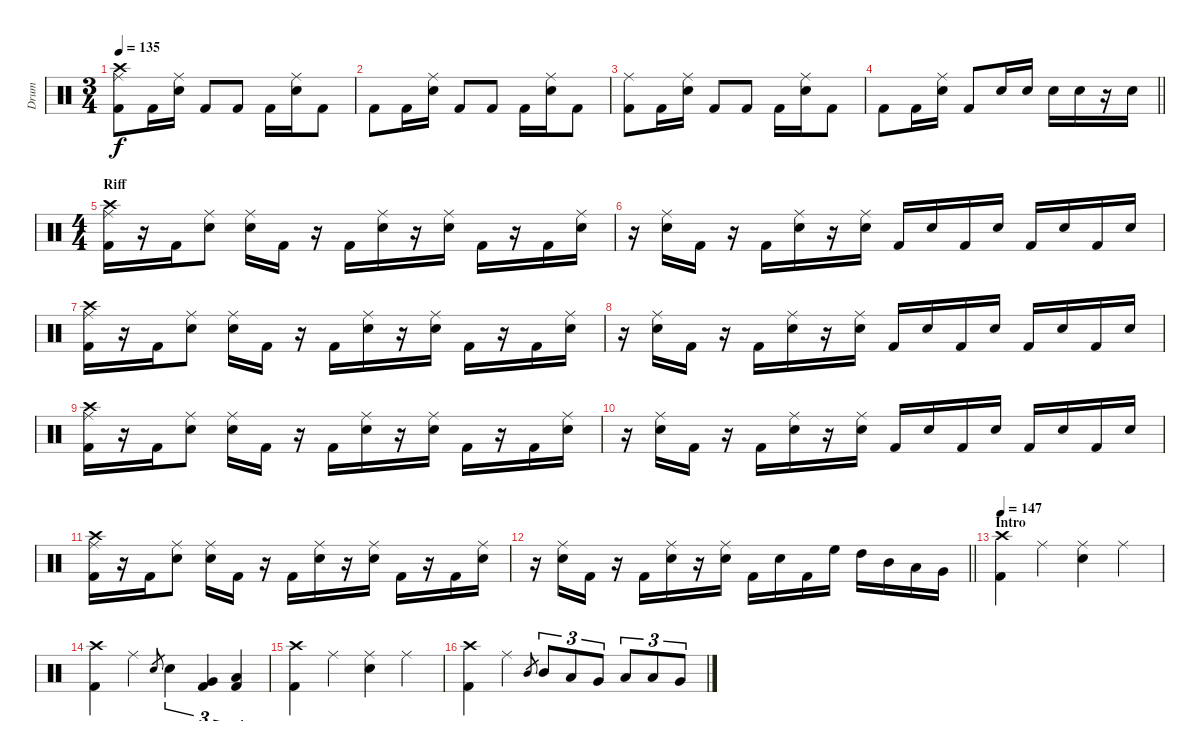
\track ("Drum" "Drum") {instrument percussion}
\staff {score}
\articulation defaults
\ts (3 4)
\tempo 135
\clef neutral
\ks c
("Crash high (hit)" "Ride (middle)" "Kick (hit) 2").8{dy f} "Kick (hit) 2".16 ("Ride (middle)" "Electric Snare (hit)").16 "Kick (hit) 2".8 "Kick (hit) 2".8 "Kick (hit) 2".16 ("Ride (middle)" "Electric Snare (hit)").16 "Kick (hit) 2".8 |
"Kick (hit) 2".8 "Kick (hit) 2".16 ("Ride (middle)" "Electric Snare (hit)").16 "Kick (hit) 2".8 "Kick (hit) 2".8 "Kick (hit) 2".16 ("Ride (middle)" "Electric Snare (hit)").16 "Kick (hit) 2".8 |
("Ride (middle)" "Kick (hit) 2").8 "Kick (hit) 2".16 ("Ride (middle)" "Electric Snare (hit)").16 "Kick (hit) 2".8 "Kick (hit) 2".8 "Kick (hit) 2".16 ("Ride (middle)" "Electric Snare (hit)").16 "Kick (hit) 2".8 |
\barLineRight lightlight "Kick (hit) 2".8 "Kick (hit) 2".16
("Ride (middle)" "Electric Snare (hit)").16 "Kick (hit) 2".8 "Electric Snare (hit)".16 "Electric Snare (hit)".16 "Electric Snare (hit)".16 "Electric Snare (hit)".16 r.16 "Electric Snare (hit)".16 |
\ts (4 4)
\section ("" "Riff")
("Crash high (hit)" "Ride (middle)" "Kick (hit) 2").16 r.16 "Kick (hit) 2".16 ("Ride (middle)" "Electric Snare (hit)").8 ("Ride (middle)" "Electric Snare (hit)").16 "Kick (hit) 2".16 r.16 "Kick (hit) 2".16 ("Ride (middle)" "Electric Snare (hit)").16 r.16 ("Ride (middle)" "Electric Snare (hit)").16 "Kick (hit) 2".16 r.16 "Kick (hit) 2".16 ("Ride (middle)" "Electric Snare (hit)").16 |
r.16 ("Ride (middle)" "Electric Snare (hit)").16 "Kick (hit) 2".16 r.16 "Kick (hit) 2".16 ("Ride (middle)" "Electric Snare (hit)").16 r.16 ("Ride (middle)" "Electric Snare (hit)").16 "Kick (hit) 2".16 "Electric Snare (hit)".16 "Kick (hit) 2".16 "Electric Snare (hit)".16 "Kick (hit) 2".16 "Electric Snare (hit)".16 "Kick (hit) 2".16 "Electric Snare (hit)".16 |
("Crash high (hit)" "Ride (middle)" "Kick (hit) 2").16 r.16 "Kick (hit) 2".16 ("Ride (middle)" "Electric Snare (hit)").8 ("Ride (middle)" "Electric Snare (hit)").16 "Kick (hit) 2".16 r.16 "Kick (hit) 2".16 ("Ride (middle)" "Electric Snare (hit)").16 r.16 ("Ride (middle)" "Electric Snare (hit)").16 "Kick (hit) 2".16 r.16 "Kick (hit) 2".16 ("Ride (middle)" "Electric Snare (hit)").16 |
r.16 ("Ride (middle)" "Electric Snare (hit)").16 "Kick (hit) 2".16 r.16 "Kick (hit) 2".16 ("Ride (middle)" "Electric Snare (hit)").16 r.16 ("Ride (middle)" "Electric Snare (hit)").16 "Kick (hit) 2".16 "Electric Snare (hit)".16 "Kick (hit) 2".16 "Electric Snare (hit)".16 "Kick (hit) 2".16 "Electric Snare (hit)".16 "Kick (hit) 2".16 "Electric Snare (hit)".16 |
("Crash high (hit)" "Ride (middle)" "Kick (hit) 2").16 r.16 "Kick (hit) 2".16 ("Ride (middle)" "Electric Snare (hit)").8 ("Ride (middle)" "Electric Snare (hit)").16 "Kick (hit) 2".16 r.16 "Kick (hit) 2".16 ("Ride (middle)" "Electric Snare (hit)").16 r.16 ("Ride (middle)" "Electric Snare (hit)").16 "Kick (hit) 2".16 r.16 "Kick (hit) 2".16 ("Ride (middle)" "Electric Snare (hit)").16 |
r.16 ("Ride (middle)" "Electric Snare (hit)").16 "Kick (hit) 2".16 r.16 "Kick (hit) 2".16 ("Ride (middle)" "Electric Snare (hit)").16 r.16 ("Ride (middle)" "Electric Snare (hit)").16 "Kick (hit) 2".16 "Electric Snare (hit)".16 "Kick (hit) 2".16 "Electric Snare (hit)".16 "Kick (hit) 2".16 "Electric Snare (hit)".16 "Kick (hit) 2".16 "Electric Snare (hit)".16 |
("Crash high (hit)" "Ride (middle)" "Kick (hit) 2").16 r.16 "Kick (hit) 2".16 ("Ride (middle)" "Electric Snare (hit)").8 ("Ride (middle)" "Electric Snare (hit)").16 "Kick (hit) 2".16 r.16 "Kick (hit) 2".16 ("Ride (middle)" "Electric Snare (hit)").16 r.16 ("Ride (middle)" "Electric Snare (hit)").16 "Kick (hit) 2".16 r.16 "Kick (hit) 2".16 ("Ride (middle)" "Electric Snare (hit)").16 |
\barLineRight lightlight
r.16 ("Ride (middle)" "Electric Snare (hit)").16 "Kick (hit) 2".16 r.16 "Kick (hit) 2".16 ("Ride (middle)" "Electric Snare (hit)").16 r.16 ("Ride (middle)" "Electric Snare (hit)").16 "Kick (hit) 2".16 "Electric Snare (hit)".16 "Kick (hit) 2".16 "High Floor Tom (hit)".16 "High Tom (hit)".16 "Mid Tom (hit)".16 "Low Tom (hit)".16 "Very Low Tom (hit)".16 |
\section ("" "Intro")
\tempo 147
("Crash high (hit)" "Kick (hit) 2").4 "Ride (middle)".4 ("Ride (middle)" "Electric Snare (hit)").4 "Ride (middle)".4 |
("Crash high (hit)" "Kick (hit) 2").4 "Ride (middle)".4 "Electric Snare (hit)".8{gr} "Electric Snare (hit)".4{tu (3 2)} ("Very Low Tom (hit)" "Kick (hit) 2").4{tu (3 2)} ("Low Floor Tom (hit)" "Kick (hit) 2").4{tu (3 2)} |
("Crash high (hit)" "Kick (hit) 2").4 "Ride (middle)".4 ("Ride (middle)" "Electric Snare (hit)").4 "Ride (middle)".4 |
("Crash high (hit)" "Kick (hit) 2").4 "Ride (middle)".4 "Mid Tom (hit)".8{gr} "Mid Tom (hit)".8{tu (3 2)} "Low Tom (hit)".8{tu (3 2)} "Very Low Tom (hit)".8{tu (3 2)} "Low Floor Tom (hit)".8{tu (3 2)} "Low Tom (hit)".8{tu (3 2)} "Very Low Tom (hit)".8{tu (3 2)}
